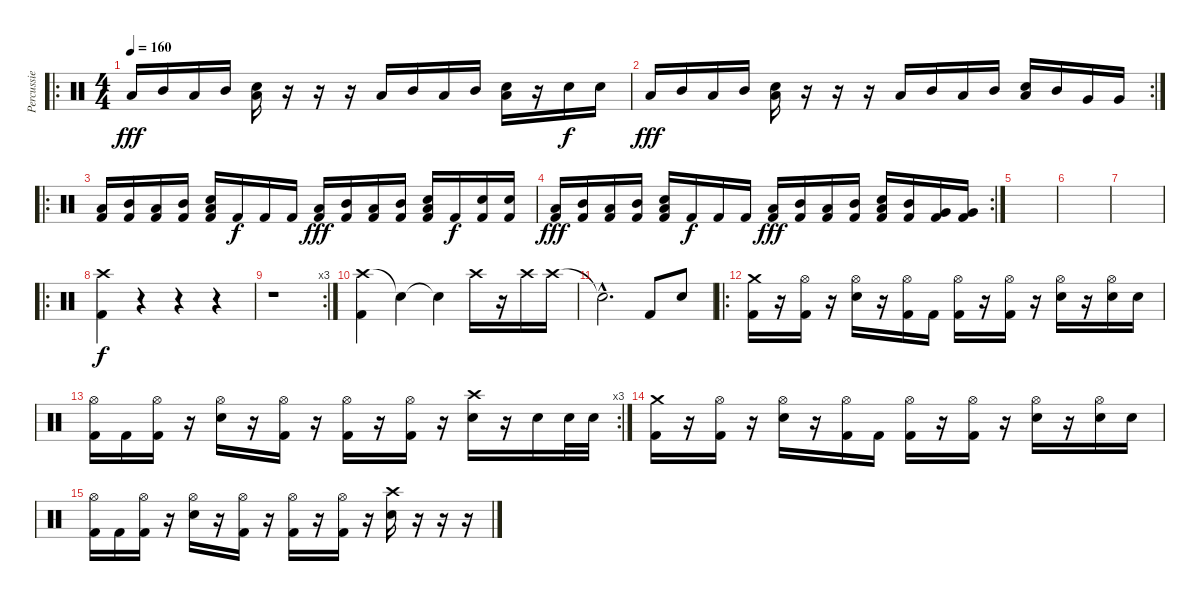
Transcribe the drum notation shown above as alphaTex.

\track ("Percussie" "Percussie") {instrument percussion}
\staff {score}
\articulation defaults
\ro
\ts (4 4)
\tempo 160
\clef neutral
\ks c "Low Tom (hit)".16{dy fff} "Mid Tom (hit)".16 "Low Tom (hit)".16 "Mid Tom (hit)".16
("Low Tom (hit)" "Electric Snare (hit)").16 r.16 r.16 r.16 "Low Tom (hit)".16 "Mid Tom (hit)".16 "Low Tom (hit)".16 "Mid Tom (hit)".16 ("Low Tom (hit)" "Electric Snare (hit)").16 r.16 "Electric Snare (hit)".16{dy f} "Electric Snare (hit)".16 |
\rc 2 "Low Tom (hit)".16{dy fff} "Mid Tom (hit)".16 "Low Tom (hit)".16 "Mid Tom (hit)".16
("Low Tom (hit)" "Electric Snare (hit)").16 r.16 r.16 r.16 "Low Tom (hit)".16 "Mid Tom (hit)".16 "Low Tom (hit)".16 "Mid Tom (hit)".16 ("Low Tom (hit)" "Electric Snare (hit)").16 "Mid Tom (hit)".16 "Very Low Tom (hit)".16 "Very Low Tom (hit)".16 |
\ro
("Low Tom (hit)" "Kick (hit) 2").16 ("Mid Tom (hit)" "Kick (hit) 2").16 ("Low Tom (hit)" "Kick (hit) 2").16 ("Mid Tom (hit)" "Kick (hit) 2").16 ("Low Tom (hit)" "Electric Snare (hit)" "Kick (hit) 2").16 "Kick (hit) 2".16{dy f} "Kick (hit) 2".16 "Kick (hit) 2".16 ("Low Tom (hit)" "Kick (hit) 2").16{dy fff} ("Mid Tom (hit)" "Kick (hit) 2").16 ("Low Tom (hit)" "Kick (hit) 2").16 ("Mid Tom (hit)" "Kick (hit) 2").16 ("Low Tom (hit)" "Electric Snare (hit)" "Kick (hit) 2").16 "Kick (hit) 2".16{dy f} ("Electric Snare (hit)" "Kick (hit) 2").16 ("Electric Snare (hit)" "Kick (hit) 2").16 |
\rc 2
("Low Tom (hit)" "Kick (hit) 2").16{dy fff} ("Mid Tom (hit)" "Kick (hit) 2").16 ("Low Tom (hit)" "Kick (hit) 2").16 ("Mid Tom (hit)" "Kick (hit) 2").16 ("Low Tom (hit)" "Electric Snare (hit)" "Kick (hit) 2").16 "Kick (hit) 2".16{dy f} "Kick (hit) 2".16 "Kick (hit) 2".16 ("Low Tom (hit)" "Kick (hit) 2").16{dy fff} ("Mid Tom (hit)" "Kick (hit) 2").16 ("Low Tom (hit)" "Kick (hit) 2").16 ("Mid Tom (hit)" "Kick (hit) 2").16 ("Low Tom (hit)" "Electric Snare (hit)" "Kick (hit) 2").16 ("Mid Tom (hit)" "Kick (hit) 2").16 ("Very Low Tom (hit)" "Kick (hit) 2").16 ("Very Low Tom (hit)" "Kick (hit) 2").16 |
|
|
|
\ro
("Crash high (hit)" "Kick (hit) 2").4{dy f} r.4 r.4 r.4 |
\rc 3
r.1 |
("Crash high (hit)" "Kick (hit) 2").4 "Snare (hit)"{t}.4 "Snare (hit)"{t}.4 "Crash high (hit)".16 r.16 "Crash high (hit)".16 "Crash high (hit)".16 |
"Snare (hit)"{hac t}.2{d} "Kick (hit) 2".8 "Electric Snare (hit)".8 |
\ro
("Crash medium (hit)" "Kick (hit) 2").16 r.16 ("Hi-Hat (open)" "Kick (hit) 2").16 r.16 ("Hi-Hat (open)" "Electric Snare (hit)").16 r.16 ("Hi-Hat (open)" "Kick (hit) 2").16 "Kick (hit) 2".16 ("Hi-Hat (open)" "Kick (hit) 2").16 r.16 ("Hi-Hat (open)" "Kick (hit) 2").16 r.16 ("Hi-Hat (open)" "Electric Snare (hit)").16 r.16 ("Hi-Hat (open)" "Electric Snare (hit)").16 "Electric Snare (hit)".16 |
\rc 3
("Hi-Hat (open)" "Kick (hit) 2").16 "Kick (hit) 2".16 ("Hi-Hat (open)" "Kick (hit) 2").16 r.16 ("Hi-Hat (open)" "Electric Snare (hit)").16 r.16 ("Hi-Hat (open)" "Kick (hit) 2").16 r.16 ("Hi-Hat (open)" "Kick (hit) 2").16 r.16 ("Hi-Hat (open)" "Kick (hit) 2").16 r.16 ("Crash high (hit)" "Electric Snare (hit)").16 r.16 "Electric Snare (hit)".16 "Electric Snare (hit)".32 "Electric Snare (hit)".32 |
("Crash medium (hit)" "Kick (hit) 2").16 r.16 ("Hi-Hat (open)" "Kick (hit) 2").16 r.16 ("Hi-Hat (open)" "Electric Snare (hit)").16 r.16 ("Hi-Hat (open)" "Kick (hit) 2").16 "Kick (hit) 2".16 ("Hi-Hat (open)" "Kick (hit) 2").16 r.16 ("Hi-Hat (open)" "Kick (hit) 2").16 r.16 ("Hi-Hat (open)" "Electric Snare (hit)").16 r.16 ("Hi-Hat (open)" "Electric Snare (hit)").16 "Electric Snare (hit)".16 |
("Hi-Hat (open)" "Kick (hit) 2").16 "Kick (hit) 2".16 ("Hi-Hat (open)" "Kick (hit) 2").16 r.16 ("Hi-Hat (open)" "Electric Snare (hit)").16 r.16 ("Hi-Hat (open)" "Kick (hit) 2").16 r.16 ("Hi-Hat (open)" "Kick (hit) 2").16 r.16 ("Hi-Hat (open)" "Kick (hit) 2").16 r.16 ("Crash high (hit)" "Electric Snare (hit)").16 r.16 r.16 r.16
